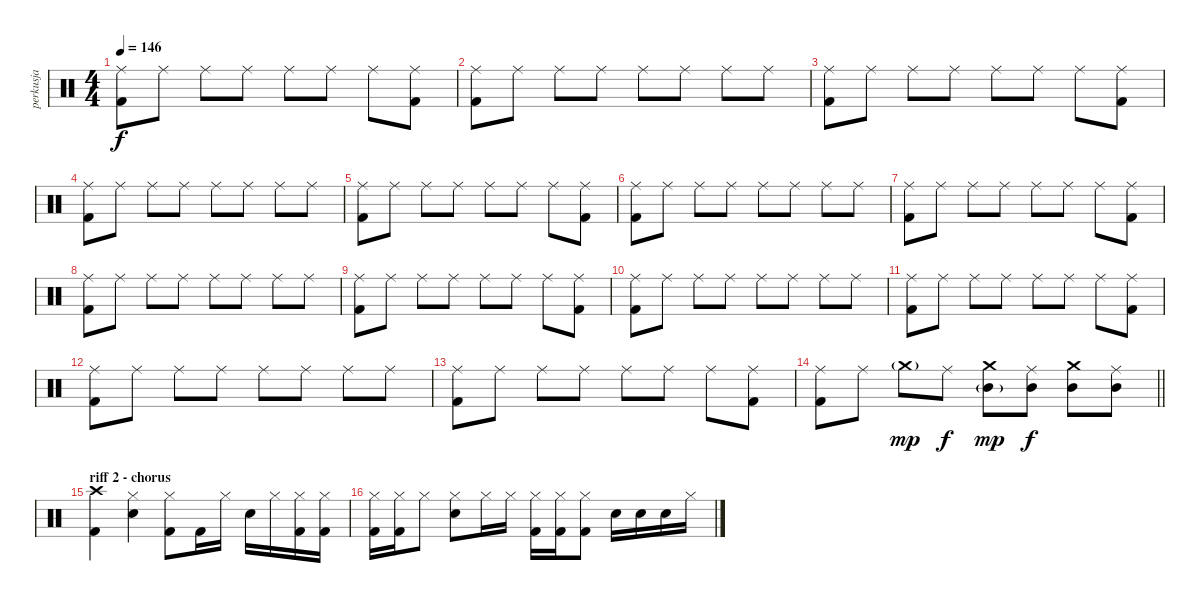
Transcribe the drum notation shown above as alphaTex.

\track ("perkusja" "perkusja") {instrument percussion}
\staff {score}
\articulation defaults
\ts (4 4)
\tempo 146
\clef neutral
\ks c
("Ride (middle)" "Kick (hit) 2").8{dy f} "Ride (middle)".8 "Ride (middle)".8 "Ride (middle)".8 "Ride (middle)".8 "Ride (middle)".8 "Ride (middle)".8 ("Ride (middle)" "Kick (hit) 2").8 |
("Ride (middle)" "Kick (hit) 2").8 "Ride (middle)".8 "Ride (middle)".8 "Ride (middle)".8 "Ride (middle)".8 "Ride (middle)".8 "Ride (middle)".8 "Ride (middle)".8 |
("Ride (middle)" "Kick (hit) 2").8 "Ride (middle)".8 "Ride (middle)".8 "Ride (middle)".8 "Ride (middle)".8 "Ride (middle)".8 "Ride (middle)".8 ("Ride (middle)" "Kick (hit) 2").8 |
("Ride (middle)" "Kick (hit) 2").8 "Ride (middle)".8 "Ride (middle)".8 "Ride (middle)".8 "Ride (middle)".8 "Ride (middle)".8 "Ride (middle)".8 "Ride (middle)".8 |
("Ride (middle)" "Kick (hit) 2").8 "Ride (middle)".8 "Ride (middle)".8 "Ride (middle)".8 "Ride (middle)".8 "Ride (middle)".8 "Ride (middle)".8 ("Ride (middle)" "Kick (hit) 2").8 |
("Ride (middle)" "Kick (hit) 2").8 "Ride (middle)".8 "Ride (middle)".8 "Ride (middle)".8 "Ride (middle)".8 "Ride (middle)".8 "Ride (middle)".8 "Ride (middle)".8 |
("Ride (middle)" "Kick (hit) 2").8 "Ride (middle)".8 "Ride (middle)".8 "Ride (middle)".8 "Ride (middle)".8 "Ride (middle)".8 "Ride (middle)".8 ("Ride (middle)" "Kick (hit) 2").8 |
("Ride (middle)" "Kick (hit) 2").8 "Ride (middle)".8 "Ride (middle)".8 "Ride (middle)".8 "Ride (middle)".8 "Ride (middle)".8 "Ride (middle)".8 "Ride (middle)".8 |
("Ride (middle)" "Kick (hit) 2").8 "Ride (middle)".8 "Ride (middle)".8 "Ride (middle)".8 "Ride (middle)".8 "Ride (middle)".8 "Ride (middle)".8 ("Ride (middle)" "Kick (hit) 2").8 |
("Ride (middle)" "Kick (hit) 2").8 "Ride (middle)".8 "Ride (middle)".8 "Ride (middle)".8 "Ride (middle)".8 "Ride (middle)".8 "Ride (middle)".8 "Ride (middle)".8 |
("Ride (middle)" "Kick (hit) 2").8 "Ride (middle)".8 "Ride (middle)".8 "Ride (middle)".8 "Ride (middle)".8 "Ride (middle)".8 "Ride (middle)".8 ("Ride (middle)" "Kick (hit) 2").8 |
("Ride (middle)" "Kick (hit) 2").8 "Ride (middle)".8 "Ride (middle)".8 "Ride (middle)".8 "Ride (middle)".8 "Ride (middle)".8 "Ride (middle)".8 "Ride (middle)".8 |
("Ride (middle)" "Kick (hit) 2").8 "Ride (middle)".8 "Ride (middle)".8 "Ride (middle)".8 "Ride (middle)".8 "Ride (middle)".8 "Ride (middle)".8 ("Ride (middle)" "Kick (hit) 2").8 |
\barLineRight lightlight
("Ride (middle)" "Kick (hit) 2").8 "Ride (middle)".8 "Crash medium (hit)"{g}.8{dy mp} "Ride (middle)".8{dy f} ("Crash medium (hit)" "Mid Tom (hit)"{g}).8{dy mp} ("Ride (middle)" "Mid Tom (hit)").8{dy f} ("Crash medium (hit)" "Mid Tom (hit)").8 ("Ride (middle)" "Mid Tom (hit)").8 |
\section ("" "riff 2 - chorus")
("Crash high (hit)" "Kick (hit) 2").4 ("Hi-Hat (closed)" "Electric Snare (hit)").4 ("Hi-Hat (closed)" "Kick (hit) 2").8 "Kick (hit) 2".16 "Hi-Hat (closed)".16 "Electric Snare (hit)".16 "Hi-Hat (closed)".16 ("Hi-Hat (closed)" "Kick (hit) 2").16 ("Hi-Hat (closed)" "Kick (hit) 2").16 |
("Hi-Hat (closed)" "Kick (hit) 2").16 ("Hi-Hat (closed)" "Kick (hit) 2").16 "Hi-Hat (closed)".8 ("Hi-Hat (closed)" "Electric Snare (hit)").8 "Hi-Hat (closed)".16 "Hi-Hat (closed)".16 ("Hi-Hat (closed)" "Kick (hit) 2").16 ("Hi-Hat (closed)" "Kick (hit) 2").16 ("Hi-Hat (closed)" "Kick (hit) 2").8 "Electric Snare (hit)".16 "Electric Snare (hit)".16 "Electric Snare (hit)".16 "Hi-Hat (closed)".16
